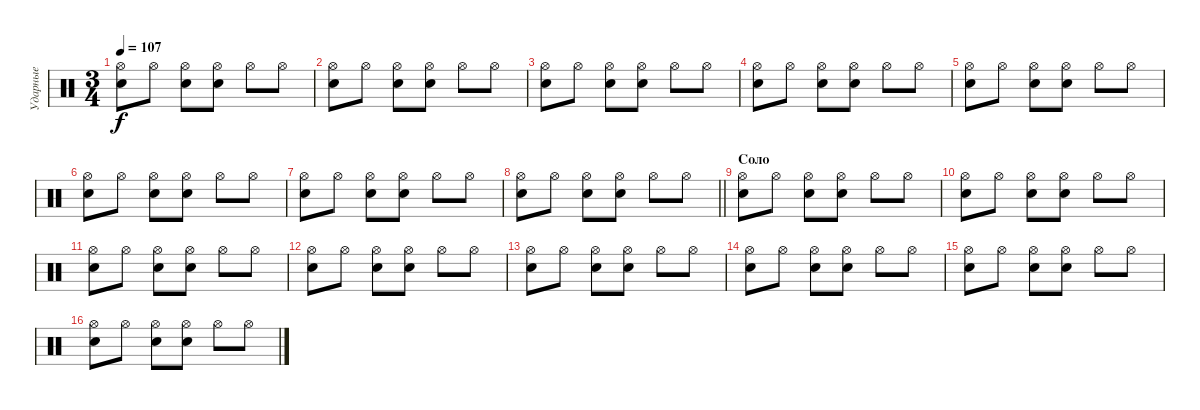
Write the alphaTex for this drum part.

\track ("Ударные" "Ударные") {instrument percussion}
\staff {score}
\articulation defaults
\ts (3 4)
\tempo 107
\clef neutral
\ks c
("Hi-Hat (open)" "Snare (hit) 2").8{dy f} "Hi-Hat (open)".8 ("Hi-Hat (open)" "Snare (hit) 2").8 ("Hi-Hat (open)" "Snare (hit) 2").8 "Hi-Hat (open)".8 "Hi-Hat (open)".8 |
("Hi-Hat (open)" "Snare (hit) 2").8 "Hi-Hat (open)".8 ("Hi-Hat (open)" "Snare (hit) 2").8 ("Hi-Hat (open)" "Snare (hit) 2").8 "Hi-Hat (open)".8 "Hi-Hat (open)".8 |
("Hi-Hat (open)" "Snare (hit) 2").8 "Hi-Hat (open)".8 ("Hi-Hat (open)" "Snare (hit) 2").8 ("Hi-Hat (open)" "Snare (hit) 2").8 "Hi-Hat (open)".8 "Hi-Hat (open)".8 |
("Hi-Hat (open)" "Snare (hit) 2").8 "Hi-Hat (open)".8 ("Hi-Hat (open)" "Snare (hit) 2").8 ("Hi-Hat (open)" "Snare (hit) 2").8 "Hi-Hat (open)".8 "Hi-Hat (open)".8 |
("Hi-Hat (open)" "Snare (hit) 2").8 "Hi-Hat (open)".8 ("Hi-Hat (open)" "Snare (hit) 2").8 ("Hi-Hat (open)" "Snare (hit) 2").8 "Hi-Hat (open)".8 "Hi-Hat (open)".8 |
("Hi-Hat (open)" "Snare (hit) 2").8 "Hi-Hat (open)".8 ("Hi-Hat (open)" "Snare (hit) 2").8 ("Hi-Hat (open)" "Snare (hit) 2").8 "Hi-Hat (open)".8 "Hi-Hat (open)".8 |
("Hi-Hat (open)" "Snare (hit) 2").8 "Hi-Hat (open)".8 ("Hi-Hat (open)" "Snare (hit) 2").8 ("Hi-Hat (open)" "Snare (hit) 2").8 "Hi-Hat (open)".8 "Hi-Hat (open)".8 |
\barLineRight lightlight
("Hi-Hat (open)" "Snare (hit) 2").8 "Hi-Hat (open)".8 ("Hi-Hat (open)" "Snare (hit) 2").8 ("Hi-Hat (open)" "Snare (hit) 2").8 "Hi-Hat (open)".8 "Hi-Hat (open)".8 |
\section ("" "Соло")
("Hi-Hat (open)" "Snare (hit) 2").8 "Hi-Hat (open)".8 ("Hi-Hat (open)" "Snare (hit) 2").8 ("Hi-Hat (open)" "Snare (hit) 2").8 "Hi-Hat (open)".8 "Hi-Hat (open)".8 |
("Hi-Hat (open)" "Snare (hit) 2").8 "Hi-Hat (open)".8 ("Hi-Hat (open)" "Snare (hit) 2").8 ("Hi-Hat (open)" "Snare (hit) 2").8 "Hi-Hat (open)".8 "Hi-Hat (open)".8 |
("Hi-Hat (open)" "Snare (hit) 2").8 "Hi-Hat (open)".8 ("Hi-Hat (open)" "Snare (hit) 2").8 ("Hi-Hat (open)" "Snare (hit) 2").8 "Hi-Hat (open)".8 "Hi-Hat (open)".8 |
("Hi-Hat (open)" "Snare (hit) 2").8 "Hi-Hat (open)".8 ("Hi-Hat (open)" "Snare (hit) 2").8 ("Hi-Hat (open)" "Snare (hit) 2").8 "Hi-Hat (open)".8 "Hi-Hat (open)".8 |
("Hi-Hat (open)" "Snare (hit) 2").8 "Hi-Hat (open)".8 ("Hi-Hat (open)" "Snare (hit) 2").8 ("Hi-Hat (open)" "Snare (hit) 2").8 "Hi-Hat (open)".8 "Hi-Hat (open)".8 |
("Hi-Hat (open)" "Snare (hit) 2").8 "Hi-Hat (open)".8 ("Hi-Hat (open)" "Snare (hit) 2").8 ("Hi-Hat (open)" "Snare (hit) 2").8 "Hi-Hat (open)".8 "Hi-Hat (open)".8 |
("Hi-Hat (open)" "Snare (hit) 2").8 "Hi-Hat (open)".8 ("Hi-Hat (open)" "Snare (hit) 2").8 ("Hi-Hat (open)" "Snare (hit) 2").8 "Hi-Hat (open)".8 "Hi-Hat (open)".8 |
("Hi-Hat (open)" "Snare (hit) 2").8 "Hi-Hat (open)".8 ("Hi-Hat (open)" "Snare (hit) 2").8 ("Hi-Hat (open)" "Snare (hit) 2").8 "Hi-Hat (open)".8 "Hi-Hat (open)".8
